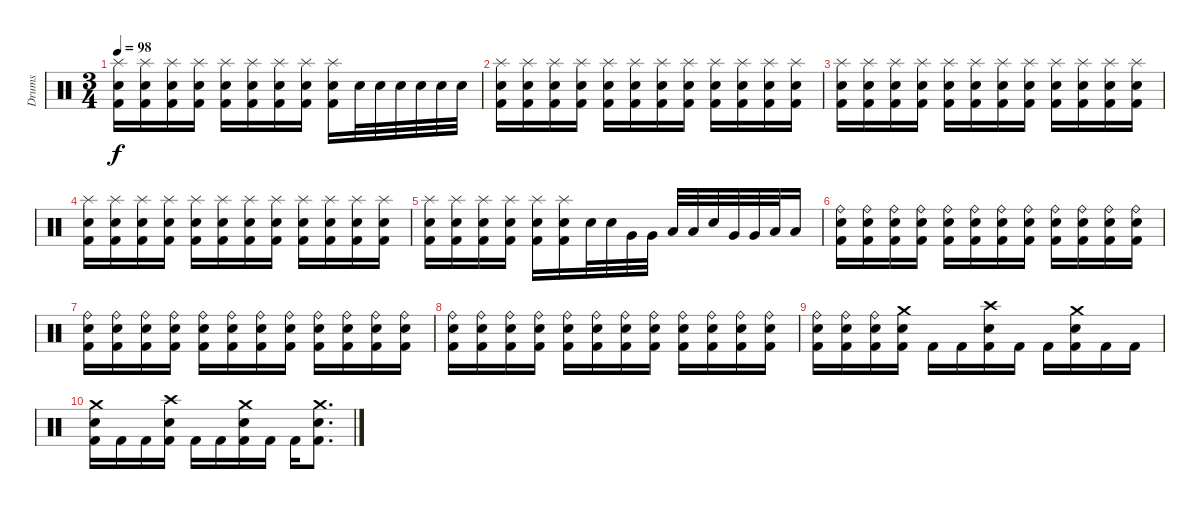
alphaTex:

\track ("Drums" "Drums") {instrument percussion}
\staff {score}
\articulation defaults
\ts (3 4)
\tempo 98
\clef neutral
\ks c
("Splash (hit)" "Electric Snare (hit)" "Kick (hit) 2").16{dy f} ("Splash (hit)" "Electric Snare (hit)" "Kick (hit) 2").16 ("Splash (hit)" "Electric Snare (hit)" "Kick (hit) 2").16 ("Splash (hit)" "Electric Snare (hit)" "Kick (hit) 2").16 ("Splash (hit)" "Electric Snare (hit)" "Kick (hit) 2").16 ("Splash (hit)" "Electric Snare (hit)" "Kick (hit) 2").16 ("Splash (hit)" "Electric Snare (hit)" "Kick (hit) 2").16 ("Splash (hit)" "Electric Snare (hit)" "Kick (hit) 2").16 ("Splash (hit)" "Electric Snare (hit)" "Kick (hit) 2").16 "Electric Snare (hit)".32 "Electric Snare (hit)".32 "Electric Snare (hit)".32 "Electric Snare (hit)".32 "Electric Snare (hit)".32 "Electric Snare (hit)".32 |
("Splash (hit)" "Electric Snare (hit)" "Kick (hit) 2").16 ("Splash (hit)" "Electric Snare (hit)" "Kick (hit) 2").16 ("Splash (hit)" "Electric Snare (hit)" "Kick (hit) 2").16 ("Splash (hit)" "Electric Snare (hit)" "Kick (hit) 2").16 ("Splash (hit)" "Electric Snare (hit)" "Kick (hit) 2").16 ("Splash (hit)" "Electric Snare (hit)" "Kick (hit) 2").16 ("Splash (hit)" "Electric Snare (hit)" "Kick (hit) 2").16 ("Splash (hit)" "Electric Snare (hit)" "Kick (hit) 2").16 ("Splash (hit)" "Electric Snare (hit)" "Kick (hit) 2").16 ("Splash (hit)" "Electric Snare (hit)" "Kick (hit) 2").16 ("Splash (hit)" "Electric Snare (hit)" "Kick (hit) 2").16 ("Splash (hit)" "Electric Snare (hit)" "Kick (hit) 2").16 |
("Splash (hit)" "Electric Snare (hit)" "Kick (hit) 2").16 ("Splash (hit)" "Electric Snare (hit)" "Kick (hit) 2").16 ("Splash (hit)" "Electric Snare (hit)" "Kick (hit) 2").16 ("Splash (hit)" "Electric Snare (hit)" "Kick (hit) 2").16 ("Splash (hit)" "Electric Snare (hit)" "Kick (hit) 2").16 ("Splash (hit)" "Electric Snare (hit)" "Kick (hit) 2").16 ("Splash (hit)" "Electric Snare (hit)" "Kick (hit) 2").16 ("Splash (hit)" "Electric Snare (hit)" "Kick (hit) 2").16 ("Splash (hit)" "Electric Snare (hit)" "Kick (hit) 2").16 ("Splash (hit)" "Electric Snare (hit)" "Kick (hit) 2").16 ("Splash (hit)" "Electric Snare (hit)" "Kick (hit) 2").16 ("Splash (hit)" "Electric Snare (hit)" "Kick (hit) 2").16 |
("Splash (hit)" "Electric Snare (hit)" "Kick (hit) 2").16 ("Splash (hit)" "Electric Snare (hit)" "Kick (hit) 2").16 ("Splash (hit)" "Electric Snare (hit)" "Kick (hit) 2").16 ("Splash (hit)" "Electric Snare (hit)" "Kick (hit) 2").16 ("Splash (hit)" "Electric Snare (hit)" "Kick (hit) 2").16 ("Splash (hit)" "Electric Snare (hit)" "Kick (hit) 2").16 ("Splash (hit)" "Electric Snare (hit)" "Kick (hit) 2").16 ("Splash (hit)" "Electric Snare (hit)" "Kick (hit) 2").16 ("Splash (hit)" "Electric Snare (hit)" "Kick (hit) 2").16 ("Splash (hit)" "Electric Snare (hit)" "Kick (hit) 2").16 ("Splash (hit)" "Electric Snare (hit)" "Kick (hit) 2").16 ("Splash (hit)" "Electric Snare (hit)" "Kick (hit) 2").16 |
("Splash (hit)" "Electric Snare (hit)" "Kick (hit) 2").16 ("Splash (hit)" "Electric Snare (hit)" "Kick (hit) 2").16 ("Splash (hit)" "Electric Snare (hit)" "Kick (hit) 2").16 ("Splash (hit)" "Electric Snare (hit)" "Kick (hit) 2").16 ("Splash (hit)" "Electric Snare (hit)" "Kick (hit) 2").16 ("Splash (hit)" "Electric Snare (hit)" "Kick (hit) 2").16 "Electric Snare (hit)".32 "Electric Snare (hit)".32 "Very Low Tom (hit)".32 "Very Low Tom (hit)".32 "Low Floor Tom (hit)".32 "Low Floor Tom (hit)".32 "Electric Snare (hit)".32 "Very Low Tom (hit)".32 "Very Low Tom (hit)".32 "Low Floor Tom (hit)".32 "Low Floor Tom (hit)".16 |
("Ride (bell)" "Electric Snare (hit)" "Kick (hit) 2").16 ("Ride (bell)" "Electric Snare (hit)" "Kick (hit) 2").16 ("Ride (bell)" "Electric Snare (hit)" "Kick (hit) 2").16 ("Ride (bell)" "Electric Snare (hit)" "Kick (hit) 2").16 ("Ride (bell)" "Electric Snare (hit)" "Kick (hit) 2").16 ("Ride (bell)" "Electric Snare (hit)" "Kick (hit) 2").16 ("Ride (bell)" "Electric Snare (hit)" "Kick (hit) 2").16 ("Ride (bell)" "Electric Snare (hit)" "Kick (hit) 2").16 ("Ride (bell)" "Electric Snare (hit)" "Kick (hit) 2").16 ("Ride (bell)" "Electric Snare (hit)" "Kick (hit) 2").16 ("Ride (bell)" "Electric Snare (hit)" "Kick (hit) 2").16 ("Ride (bell)" "Electric Snare (hit)" "Kick (hit) 2").16 |
("Ride (bell)" "Electric Snare (hit)" "Kick (hit) 2").16 ("Ride (bell)" "Electric Snare (hit)" "Kick (hit) 2").16 ("Ride (bell)" "Electric Snare (hit)" "Kick (hit) 2").16 ("Ride (bell)" "Electric Snare (hit)" "Kick (hit) 2").16 ("Ride (bell)" "Electric Snare (hit)" "Kick (hit) 2").16 ("Ride (bell)" "Electric Snare (hit)" "Kick (hit) 2").16 ("Ride (bell)" "Electric Snare (hit)" "Kick (hit) 2").16 ("Ride (bell)" "Electric Snare (hit)" "Kick (hit) 2").16 ("Ride (bell)" "Electric Snare (hit)" "Kick (hit) 2").16 ("Ride (bell)" "Electric Snare (hit)" "Kick (hit) 2").16 ("Ride (bell)" "Electric Snare (hit)" "Kick (hit) 2").16 ("Ride (bell)" "Electric Snare (hit)" "Kick (hit) 2").16 |
("Ride (bell)" "Electric Snare (hit)" "Kick (hit) 2").16 ("Ride (bell)" "Electric Snare (hit)" "Kick (hit) 2").16 ("Ride (bell)" "Electric Snare (hit)" "Kick (hit) 2").16 ("Ride (bell)" "Electric Snare (hit)" "Kick (hit) 2").16 ("Ride (bell)" "Electric Snare (hit)" "Kick (hit) 2").16 ("Ride (bell)" "Electric Snare (hit)" "Kick (hit) 2").16 ("Ride (bell)" "Electric Snare (hit)" "Kick (hit) 2").16 ("Ride (bell)" "Electric Snare (hit)" "Kick (hit) 2").16 ("Ride (bell)" "Electric Snare (hit)" "Kick (hit) 2").16 ("Ride (bell)" "Electric Snare (hit)" "Kick (hit) 2").16 ("Ride (bell)" "Electric Snare (hit)" "Kick (hit) 2").16 ("Ride (bell)" "Electric Snare (hit)" "Kick (hit) 2").16 |
("Ride (bell)" "Electric Snare (hit)" "Kick (hit) 2").16 ("Ride (bell)" "Electric Snare (hit)" "Kick (hit) 2").16 ("Ride (bell)" "Electric Snare (hit)" "Kick (hit) 2").16 ("Crash medium (hit)" "Electric Snare (hit)" "Kick (hit) 2").16 "Kick (hit) 2".16 "Kick (hit) 2".16 ("Crash high (hit)" "Electric Snare (hit)" "Kick (hit) 2").16 "Kick (hit) 2".16 "Kick (hit) 2".16 ("Crash medium (hit)" "Electric Snare (hit)" "Kick (hit) 2").16 "Kick (hit) 2".16 "Kick (hit) 2".16 |
("Crash medium (hit)" "Electric Snare (hit)" "Kick (hit) 2").16 "Kick (hit) 2".16 "Kick (hit) 2".16 ("Crash high (hit)" "Electric Snare (hit)" "Kick (hit) 2").16 "Kick (hit) 2".16 "Kick (hit) 2".16 ("Crash medium (hit)" "Electric Snare (hit)" "Kick (hit) 2").16 "Kick (hit) 2".16 "Kick (hit) 2".16 ("Crash medium (hit)" "Electric Snare (hit)" "Kick (hit) 2").8{d}
